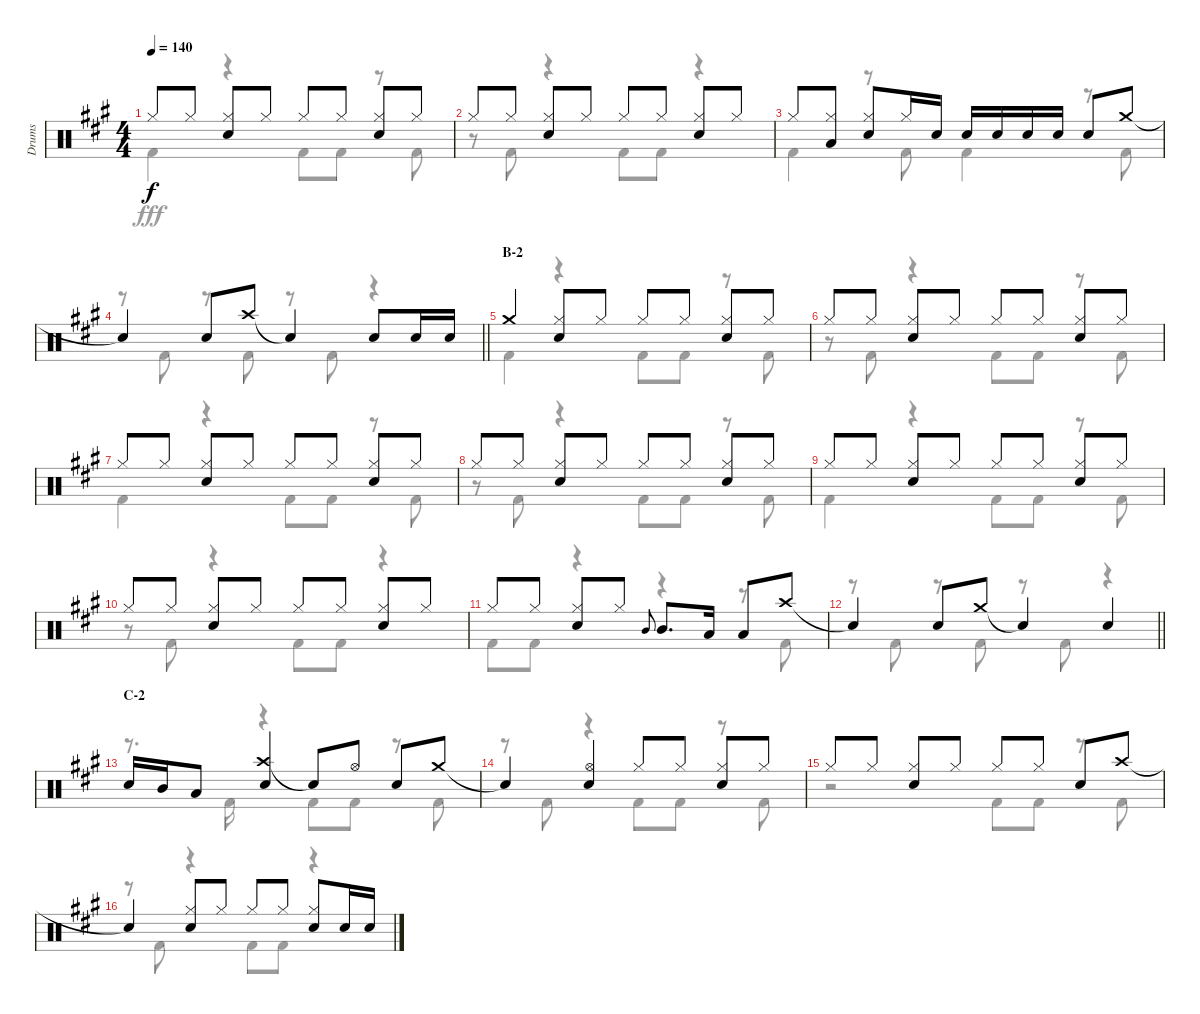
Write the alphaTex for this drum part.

\track ("Drums" "Drums") {instrument percussion}
\staff {score}
\articulation defaults
\voice
\ts (4 4)
\tempo 140
\clef neutral
\ks a "Hi-Hat (closed)".8{dy f} "Hi-Hat (closed)".8
("Hi-Hat (closed)" "Snare (hit) 2").8 "Hi-Hat (closed)".8 "Hi-Hat (closed)".8 "Hi-Hat (closed)".8 ("Hi-Hat (closed)" "Snare (hit) 2").8 "Hi-Hat (closed)".8 |
"Hi-Hat (closed)".8 "Hi-Hat (closed)".8 ("Hi-Hat (closed)" "Snare (hit) 2").8 "Hi-Hat (closed)".8 "Hi-Hat (closed)".8 "Hi-Hat (closed)".8 ("Hi-Hat (closed)" "Snare (hit) 2").8 "Hi-Hat (closed)".8 |
"Hi-Hat (closed)".8 ("Hi-Hat (closed)" "Low Tom (hit)").8 ("Hi-Hat (closed)" "Snare (hit) 2").8 "Hi-Hat (closed)".16 "Snare (hit) 2".16 "Snare (hit) 2".16 "Snare (hit) 2".16 "Snare (hit) 2".16 "Snare (hit) 2".16 "Snare (hit) 2".8 "Crash medium (hit)".8 |
\barLineRight lightlight "Snare (hit)"{t}.4 "Snare (hit) 2".8 "Crash high (hit)".8 "Snare (hit)"{t}.4 "Snare (hit) 2".8 "Snare (hit) 2".16 "Snare (hit) 2".16
|
\section ("" "B-2")
"Crash medium (hit)".4 ("Hi-Hat (closed)" "Snare (hit) 2").8 "Hi-Hat (closed)".8 "Hi-Hat (closed)".8 "Hi-Hat (closed)".8 ("Hi-Hat (closed)" "Snare (hit) 2").8 "Hi-Hat (closed)".8 |
"Hi-Hat (closed)".8 "Hi-Hat (closed)".8 ("Hi-Hat (closed)" "Snare (hit) 2").8 "Hi-Hat (closed)".8 "Hi-Hat (closed)".8 "Hi-Hat (closed)".8 ("Hi-Hat (closed)" "Snare (hit) 2").8 "Hi-Hat (closed)".8 |
"Hi-Hat (closed)".8 "Hi-Hat (closed)".8 ("Hi-Hat (closed)" "Snare (hit) 2").8 "Hi-Hat (closed)".8 "Hi-Hat (closed)".8 "Hi-Hat (closed)".8 ("Hi-Hat (closed)" "Snare (hit) 2").8 "Hi-Hat (closed)".8 |
"Hi-Hat (closed)".8 "Hi-Hat (closed)".8 ("Hi-Hat (closed)" "Snare (hit) 2").8 "Hi-Hat (closed)".8 "Hi-Hat (closed)".8 "Hi-Hat (closed)".8 ("Hi-Hat (closed)" "Snare (hit) 2").8 "Hi-Hat (closed)".8 |
"Hi-Hat (closed)".8 "Hi-Hat (closed)".8 ("Hi-Hat (closed)" "Snare (hit) 2").8 "Hi-Hat (closed)".8 "Hi-Hat (closed)".8 "Hi-Hat (closed)".8 ("Hi-Hat (closed)" "Snare (hit) 2").8 "Hi-Hat (closed)".8 |
"Hi-Hat (closed)".8 "Hi-Hat (closed)".8 ("Hi-Hat (closed)" "Snare (hit) 2").8 "Hi-Hat (closed)".8 "Hi-Hat (closed)".8 "Hi-Hat (closed)".8 ("Hi-Hat (closed)" "Snare (hit) 2").8 "Hi-Hat (closed)".8 |
"Hi-Hat (closed)".8 "Hi-Hat (closed)".8 ("Hi-Hat (closed)" "Snare (hit) 2").8 "Hi-Hat (closed)".8 "Mid Tom (hit)".8{gr onbeat} "Mid Tom (hit)".8{d} "Low Tom (hit)".16 "Low Tom (hit)".8 "Crash high (hit)".8 |
\barLineRight lightlight "Snare (hit)"{t}.4 "Snare (hit) 2".8 "Crash medium (hit)".8 "Snare (hit)"{t}.4 "Snare (hit) 2".4
|
\section ("" "C-2")
"Snare (hit) 2".16 "Mid Tom (hit)".16 "Low Tom (hit)".8 ("Crash high (hit)" "Snare (hit) 2").4 "Snare (hit)"{t}.8 "Hi-Hat (open)".8 "Snare (hit) 2".8 "Crash medium (hit)".8 |
"Snare (hit)"{t}.4 ("Hi-Hat (open)" "Snare (hit) 2").4 "Hi-Hat (closed)".8 "Hi-Hat (closed)".8 ("Hi-Hat (closed)" "Snare (hit) 2").8 "Hi-Hat (closed)".8 |
"Hi-Hat (closed)".8 "Hi-Hat (closed)".8 ("Hi-Hat (closed)" "Snare (hit) 2").8 "Hi-Hat (closed)".8 "Hi-Hat (closed)".8 "Hi-Hat (closed)".8 "Snare (hit) 2".8 "Crash high (hit)".8 |
"Snare (hit)"{t}.4 ("Hi-Hat (closed)" "Snare (hit) 2").8 "Hi-Hat (closed)".8 "Hi-Hat (closed)".8 "Hi-Hat (closed)".8 ("Hi-Hat (closed)" "Snare (hit) 2").8 "Snare (hit) 2".16 "Snare (hit) 2".16
\voice
\clef neutral
\ottava regular
\simile none
\ks a "Kick (hit) 2".4{dy fff}
r.4 "Kick (hit) 2".8 "Kick (hit) 2".8 r.8 "Kick (hit) 2".8 |
r.8 "Kick (hit) 2".8 r.4 "Kick (hit) 2".8 "Kick (hit) 2".8 r.4 |
"Kick (hit) 2".4 r.8 "Kick (hit) 2".8 "Kick (hit) 2".4 r.8 "Kick (hit) 2".8 |
\barLineRight lightlight
r.8 "Kick (hit) 2".8 r.8 "Kick (hit) 2".8 r.8 "Kick (hit) 2".8 r.4 |
"Kick (hit) 2".4 r.4 "Kick (hit) 2".8 "Kick (hit) 2".8 r.8 "Kick (hit) 2".8 |
r.8 "Kick (hit) 2".8 r.4 "Kick (hit) 2".8 "Kick (hit) 2".8 r.8 "Kick (hit) 2".8 |
"Kick (hit) 2".4 r.4 "Kick (hit) 2".8 "Kick (hit) 2".8 r.8 "Kick (hit) 2".8 |
r.8 "Kick (hit) 2".8 r.4 "Kick (hit) 2".8 "Kick (hit) 2".8 r.8 "Kick (hit) 2".8 |
"Kick (hit) 2".4 r.4 "Kick (hit) 2".8 "Kick (hit) 2".8 r.8 "Kick (hit) 2".8 |
r.8 "Kick (hit) 2".8 r.4 "Kick (hit) 2".8 "Kick (hit) 2".8 r.4 |
"Kick (hit) 2".8 "Kick (hit) 2".8 r.4 r.4 r.8 "Kick (hit) 2".8 |
\barLineRight lightlight
r.8 "Kick (hit) 2".8 r.8 "Kick (hit) 2".8 r.8 "Kick (hit) 2".8 r.4 |
r.8{d} "Kick (hit) 2".16 r.4 "Kick (hit) 2".8 "Kick (hit) 2".8 r.8 "Kick (hit) 2".8 |
r.8 "Kick (hit) 2".8 r.4 "Kick (hit) 2".8 "Kick (hit) 2".8 r.8 "Kick (hit) 2".8 |
r.2 "Kick (hit) 2".8 "Kick (hit) 2".8 r.8 "Kick (hit) 2".8 |
r.8 "Kick (hit) 2".8 r.4 "Kick (hit) 2".8 "Kick (hit) 2".8 r.4
